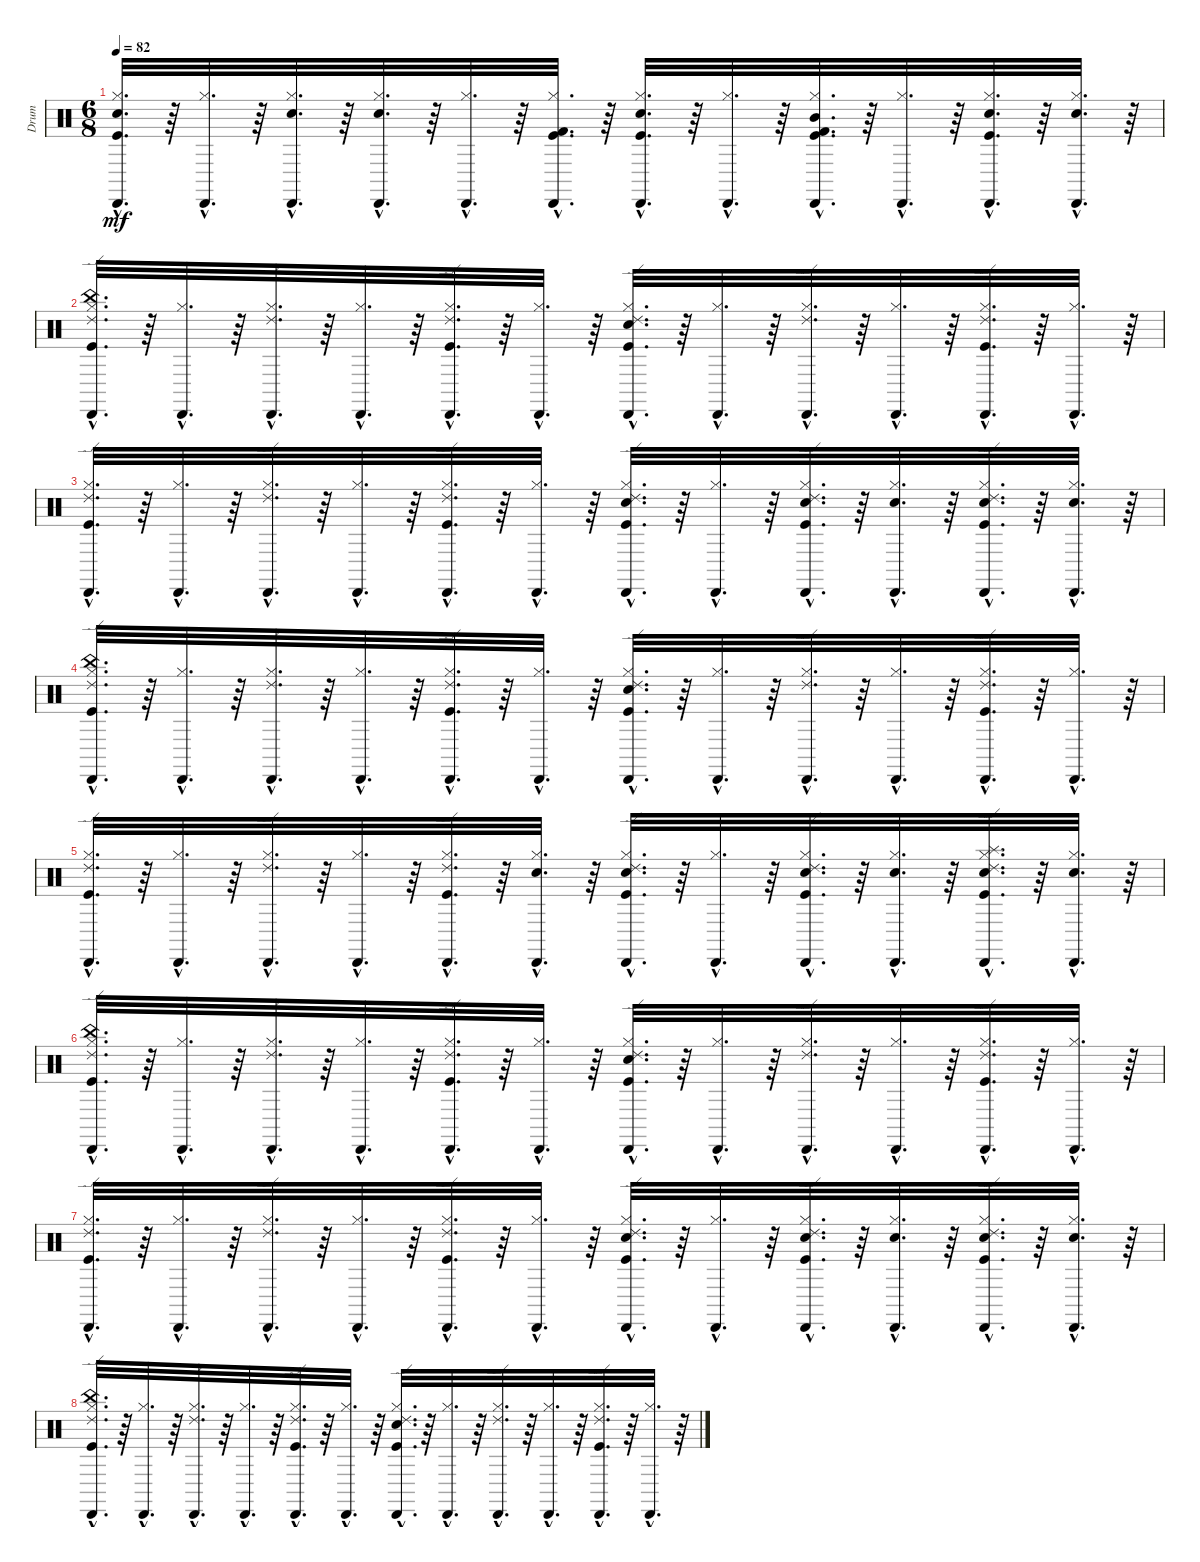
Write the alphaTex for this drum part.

\track ("Drum" "Drum") {instrument percussion}
\staff {score}
\articulation defaults
\ts (6 8)
\tempo 82
\clef neutral
\ks c
("Cabasa (hit)"{hac} "Snare (hit) 2"{hac} "Hi-Hat (closed)"{hac} "Kick (hit)"{hac}).32{d dy mf} r.64 ("Cabasa (hit)"{hac} "Hi-Hat (closed)"{hac}).32{d} r.64 ("Cabasa (hit)"{hac} "Snare (hit) 2"{hac} "Hi-Hat (closed)"{hac}).32{d} r.64 ("Cabasa (hit)"{hac} "Snare (hit) 2"{hac} "Hi-Hat (closed)"{hac}).32{d} r.64 ("Cabasa (hit)"{hac} "Hi-Hat (closed)"{hac}).32{d} r.64 ("Kick (hit) 2"{hac} "Cabasa (hit)"{hac} "Kick (hit)"{hac} "Hi-Hat (closed)"{hac}).32{d} r.64 ("Cabasa (hit)"{hac} "Snare (hit) 2"{hac} "Hi-Hat (closed)"{hac} "Kick (hit)"{hac}).32{d} r.64 ("Cabasa (hit)"{hac} "Hi-Hat (closed)"{hac}).32{d} r.64 ("Kick (hit) 2"{hac} "Cabasa (hit)"{hac} "Mid Tom (hit)"{hac} "Hi-Hat (closed)"{hac} "Kick (hit)"{hac}).32{d} r.64 ("Cabasa (hit)"{hac} "Hi-Hat (closed)"{hac}).32{d} r.64 ("Cabasa (hit)"{hac} "Hi-Hat (closed)"{hac} "Kick (hit)"{hac} "Snare (hit) 2"{hac}).32{d} r.64 ("Cabasa (hit)"{hac} "Snare (hit) 2"{hac} "Hi-Hat (closed)"{hac}).32{d} r.64 |
("Ride (edge) 2"{hac} "Cabasa (hit)"{hac} "Kick (hit)"{hac} "Hi-Hat (closed)"{hac} "China (hit)"{hac}).32{d} r.64 ("Cabasa (hit)"{hac} "Hi-Hat (closed)"{hac}).32{d} r.64 ("Ride (edge) 2"{hac} "Cabasa (hit)"{hac} "Hi-Hat (closed)"{hac}).32{d} r.64 ("Cabasa (hit)"{hac} "Hi-Hat (closed)"{hac}).32{d} r.64 ("Ride (edge) 2"{hac} "Cabasa (hit)"{hac} "Kick (hit)"{hac} "Hi-Hat (closed)"{hac}).32{d} r.64 ("Cabasa (hit)"{hac} "Hi-Hat (closed)"{hac}).32{d} r.64 ("Ride (edge) 2"{hac} "Cabasa (hit)"{hac} "Snare (hit) 2"{hac} "Hi-Hat (closed)"{hac} "Kick (hit)"{hac}).32{d} r.64 ("Cabasa (hit)"{hac} "Hi-Hat (closed)"{hac}).32{d} r.64 ("Ride (edge) 2"{hac} "Cabasa (hit)"{hac} "Hi-Hat (closed)"{hac}).32{d} r.64 ("Cabasa (hit)"{hac} "Hi-Hat (closed)"{hac}).32{d} r.64 ("Ride (edge) 2"{hac} "Cabasa (hit)"{hac} "Kick (hit)"{hac} "Hi-Hat (closed)"{hac}).32{d} r.64 ("Cabasa (hit)"{hac} "Hi-Hat (closed)"{hac}).32{d} r.64 |
("Cabasa (hit)"{hac} "Ride (edge) 2"{hac} "Kick (hit)"{hac} "Hi-Hat (closed)"{hac}).32{d} r.64 ("Cabasa (hit)"{hac} "Hi-Hat (closed)"{hac}).32{d} r.64 ("Cabasa (hit)"{hac} "Ride (edge) 2"{hac} "Hi-Hat (closed)"{hac}).32{d} r.64 ("Cabasa (hit)"{hac} "Hi-Hat (closed)"{hac}).32{d} r.64 ("Cabasa (hit)"{hac} "Ride (edge) 2"{hac} "Kick (hit)"{hac} "Hi-Hat (closed)"{hac}).32{d} r.64 ("Cabasa (hit)"{hac} "Hi-Hat (closed)"{hac}).32{d} r.64 ("Cabasa (hit)"{hac} "Ride (edge) 2"{hac} "Kick (hit)"{hac} "Snare (hit) 2"{hac} "Hi-Hat (closed)"{hac}).32{d} r.64 ("Cabasa (hit)"{hac} "Hi-Hat (closed)"{hac}).32{d} r.64 ("Cabasa (hit)"{hac} "Ride (edge) 2"{hac} "Snare (hit) 2"{hac} "Kick (hit)"{hac} "Hi-Hat (closed)"{hac}).32{d} r.64 ("Cabasa (hit)"{hac} "Snare (hit) 2"{hac} "Hi-Hat (closed)"{hac}).32{d} r.64 ("Cabasa (hit)"{hac} "Ride (edge) 2"{hac} "Kick (hit)"{hac} "Snare (hit) 2"{hac} "Hi-Hat (closed)"{hac}).32{d} r.64 ("Cabasa (hit)"{hac} "Snare (hit) 2"{hac} "Hi-Hat (closed)"{hac}).32{d} r.64 |
("China (hit)"{hac} "Hi-Hat (closed)"{hac} "Kick (hit)"{hac} "Cabasa (hit)"{hac} "Ride (edge) 2"{hac}).32{d} r.64 ("Hi-Hat (closed)"{hac} "Cabasa (hit)"{hac}).32{d} r.64 ("Hi-Hat (closed)"{hac} "Cabasa (hit)"{hac} "Ride (edge) 2"{hac}).32{d} r.64 ("Hi-Hat (closed)"{hac} "Cabasa (hit)"{hac}).32{d} r.64 ("Hi-Hat (closed)"{hac} "Kick (hit)"{hac} "Cabasa (hit)"{hac} "Ride (edge) 2"{hac}).32{d} r.64 ("Hi-Hat (closed)"{hac} "Cabasa (hit)"{hac}).32{d} r.64 ("Kick (hit)"{hac} "Hi-Hat (closed)"{hac} "Snare (hit) 2"{hac} "Cabasa (hit)"{hac} "Ride (edge) 2"{hac}).32{d} r.64 ("Hi-Hat (closed)"{hac} "Cabasa (hit)"{hac}).32{d} r.64 ("Hi-Hat (closed)"{hac} "Cabasa (hit)"{hac} "Ride (edge) 2"{hac}).32{d} r.64 ("Hi-Hat (closed)"{hac} "Cabasa (hit)"{hac}).32{d} r.64 ("Hi-Hat (closed)"{hac} "Kick (hit)"{hac} "Cabasa (hit)"{hac} "Ride (edge) 2"{hac}).32{d} r.64 ("Hi-Hat (closed)"{hac} "Cabasa (hit)"{hac}).32{d} r.64 |
("Cabasa (hit)"{hac} "Ride (edge) 2"{hac} "Kick (hit)"{hac} "Hi-Hat (closed)"{hac}).32{d} r.64 ("Cabasa (hit)"{hac} "Hi-Hat (closed)"{hac}).32{d} r.64 ("Cabasa (hit)"{hac} "Ride (edge) 2"{hac} "Hi-Hat (closed)"{hac}).32{d} r.64 ("Cabasa (hit)"{hac} "Hi-Hat (closed)"{hac}).32{d} r.64 ("Cabasa (hit)"{hac} "Ride (edge) 2"{hac} "Kick (hit)"{hac} "Hi-Hat (closed)"{hac}).32{d} r.64 ("Cabasa (hit)"{hac} "Snare (hit) 2"{hac} "Hi-Hat (closed)"{hac}).32{d} r.64 ("Cabasa (hit)"{hac} "Ride (edge) 2"{hac} "Kick (hit)"{hac} "Snare (hit) 2"{hac} "Hi-Hat (closed)"{hac}).32{d} r.64 ("Cabasa (hit)"{hac} "Hi-Hat (closed)"{hac}).32{d} r.64 ("Cabasa (hit)"{hac} "Ride (edge) 2"{hac} "Kick (hit)"{hac} "Snare (hit) 2"{hac} "Hi-Hat (closed)"{hac}).32{d} r.64 ("Cabasa (hit)"{hac} "Snare (hit) 2"{hac} "Hi-Hat (closed)"{hac}).32{d} r.64 ("Cabasa (hit)"{hac} "Ride (edge) 2"{hac} "Snare (hit) 2"{hac} "Splash (hit)"{hac} "Kick (hit)"{hac} "Hi-Hat (closed)"{hac}).32{d} r.64 ("Cabasa (hit)"{hac} "Snare (hit) 2"{hac} "Hi-Hat (closed)"{hac}).32{d} r.64 |
("China (hit)"{hac} "Hi-Hat (closed)"{hac} "Kick (hit)"{hac} "Cabasa (hit)"{hac} "Ride (edge) 2"{hac}).32{d} r.64 ("Hi-Hat (closed)"{hac} "Cabasa (hit)"{hac}).32{d} r.64 ("Hi-Hat (closed)"{hac} "Cabasa (hit)"{hac} "Ride (edge) 2"{hac}).32{d} r.64 ("Hi-Hat (closed)"{hac} "Cabasa (hit)"{hac}).32{d} r.64 ("Hi-Hat (closed)"{hac} "Kick (hit)"{hac} "Cabasa (hit)"{hac} "Ride (edge) 2"{hac}).32{d} r.64 ("Hi-Hat (closed)"{hac} "Cabasa (hit)"{hac}).32{d} r.64 ("Kick (hit)"{hac} "Hi-Hat (closed)"{hac} "Snare (hit) 2"{hac} "Cabasa (hit)"{hac} "Ride (edge) 2"{hac}).32{d} r.64 ("Hi-Hat (closed)"{hac} "Cabasa (hit)"{hac}).32{d} r.64 ("Hi-Hat (closed)"{hac} "Cabasa (hit)"{hac} "Ride (edge) 2"{hac}).32{d} r.64 ("Hi-Hat (closed)"{hac} "Cabasa (hit)"{hac}).32{d} r.64 ("Hi-Hat (closed)"{hac} "Kick (hit)"{hac} "Cabasa (hit)"{hac} "Ride (edge) 2"{hac}).32{d} r.64 ("Hi-Hat (closed)"{hac} "Cabasa (hit)"{hac}).32{d} r.64 |
("Hi-Hat (closed)"{hac} "Kick (hit)"{hac} "Ride (edge) 2"{hac} "Cabasa (hit)"{hac}).32{d} r.64 ("Hi-Hat (closed)"{hac} "Cabasa (hit)"{hac}).32{d} r.64 ("Hi-Hat (closed)"{hac} "Ride (edge) 2"{hac} "Cabasa (hit)"{hac}).32{d} r.64 ("Hi-Hat (closed)"{hac} "Cabasa (hit)"{hac}).32{d} r.64 ("Hi-Hat (closed)"{hac} "Kick (hit)"{hac} "Ride (edge) 2"{hac} "Cabasa (hit)"{hac}).32{d} r.64 ("Hi-Hat (closed)"{hac} "Cabasa (hit)"{hac}).32{d} r.64 ("Hi-Hat (closed)"{hac} "Snare (hit) 2"{hac} "Kick (hit)"{hac} "Ride (edge) 2"{hac} "Cabasa (hit)"{hac}).32{d} r.64 ("Hi-Hat (closed)"{hac} "Cabasa (hit)"{hac}).32{d} r.64 ("Hi-Hat (closed)"{hac} "Kick (hit)"{hac} "Snare (hit) 2"{hac} "Ride (edge) 2"{hac} "Cabasa (hit)"{hac}).32{d} r.64 ("Hi-Hat (closed)"{hac} "Snare (hit) 2"{hac} "Cabasa (hit)"{hac}).32{d} r.64 ("Hi-Hat (closed)"{hac} "Snare (hit) 2"{hac} "Kick (hit)"{hac} "Ride (edge) 2"{hac} "Cabasa (hit)"{hac}).32{d} r.64 ("Hi-Hat (closed)"{hac} "Snare (hit) 2"{hac} "Cabasa (hit)"{hac}).32{d} r.64 |
("Ride (edge) 2"{hac} "Cabasa (hit)"{hac} "Kick (hit)"{hac} "Hi-Hat (closed)"{hac} "China (hit)"{hac}).32{d} r.64 ("Cabasa (hit)"{hac} "Hi-Hat (closed)"{hac}).32{d} r.64 ("Ride (edge) 2"{hac} "Cabasa (hit)"{hac} "Hi-Hat (closed)"{hac}).32{d} r.64 ("Cabasa (hit)"{hac} "Hi-Hat (closed)"{hac}).32{d} r.64 ("Ride (edge) 2"{hac} "Cabasa (hit)"{hac} "Kick (hit)"{hac} "Hi-Hat (closed)"{hac}).32{d} r.64 ("Cabasa (hit)"{hac} "Hi-Hat (closed)"{hac}).32{d} r.64 ("Ride (edge) 2"{hac} "Cabasa (hit)"{hac} "Snare (hit) 2"{hac} "Hi-Hat (closed)"{hac} "Kick (hit)"{hac}).32{d} r.64 ("Cabasa (hit)"{hac} "Hi-Hat (closed)"{hac}).32{d} r.64 ("Ride (edge) 2"{hac} "Cabasa (hit)"{hac} "Hi-Hat (closed)"{hac}).32{d} r.64 ("Cabasa (hit)"{hac} "Hi-Hat (closed)"{hac}).32{d} r.64 ("Ride (edge) 2"{hac} "Cabasa (hit)"{hac} "Kick (hit)"{hac} "Hi-Hat (closed)"{hac}).32{d} r.64 ("Cabasa (hit)"{hac} "Hi-Hat (closed)"{hac}).32{d} r.64
